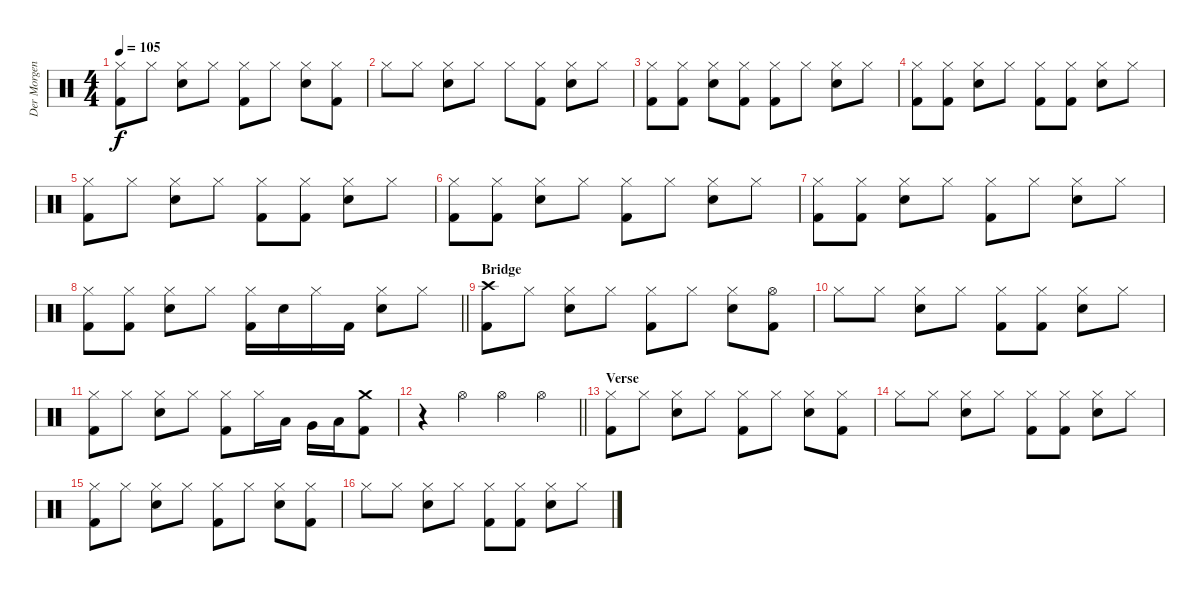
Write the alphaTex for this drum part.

\track ("Der Morgenstern" "Der Morgen") {instrument percussion}
\staff {score}
\articulation defaults
\ts (4 4)
\tempo 105
\clef neutral
\ks c
("Hi-Hat (closed)" "Kick (hit) 2").8{dy f} "Hi-Hat (closed)".8 ("Hi-Hat (closed)" "Electric Snare (hit)").8 "Hi-Hat (closed)".8 ("Hi-Hat (closed)" "Kick (hit) 2").8 "Hi-Hat (closed)".8 ("Hi-Hat (closed)" "Electric Snare (hit)").8 ("Hi-Hat (closed)" "Kick (hit) 2").8 |
"Hi-Hat (closed)".8 "Hi-Hat (closed)".8 ("Hi-Hat (closed)" "Electric Snare (hit)").8 "Hi-Hat (closed)".8 "Hi-Hat (closed)".8 ("Hi-Hat (closed)" "Kick (hit) 2").8 ("Hi-Hat (closed)" "Electric Snare (hit)").8 "Hi-Hat (closed)".8 |
("Hi-Hat (closed)" "Kick (hit) 2").8 ("Hi-Hat (closed)" "Kick (hit) 2").8 ("Hi-Hat (closed)" "Electric Snare (hit)").8 ("Hi-Hat (closed)" "Kick (hit) 2").8 ("Hi-Hat (closed)" "Kick (hit) 2").8 "Hi-Hat (closed)".8 ("Hi-Hat (closed)" "Electric Snare (hit)").8 "Hi-Hat (closed)".8 |
("Hi-Hat (closed)" "Kick (hit) 2").8 ("Hi-Hat (closed)" "Kick (hit) 2").8 ("Hi-Hat (closed)" "Electric Snare (hit)").8 "Hi-Hat (closed)".8 ("Hi-Hat (closed)" "Kick (hit) 2").8 ("Hi-Hat (closed)" "Kick (hit) 2").8 ("Hi-Hat (closed)" "Electric Snare (hit)").8 "Hi-Hat (closed)".8 |
("Hi-Hat (closed)" "Kick (hit) 2").8 "Hi-Hat (closed)".8 ("Hi-Hat (closed)" "Electric Snare (hit)").8 "Hi-Hat (closed)".8 ("Hi-Hat (closed)" "Kick (hit) 2").8 ("Hi-Hat (closed)" "Kick (hit) 2").8 ("Hi-Hat (closed)" "Electric Snare (hit)").8 "Hi-Hat (closed)".8 |
("Hi-Hat (closed)" "Kick (hit) 2").8 ("Hi-Hat (closed)" "Kick (hit) 2").8 ("Hi-Hat (closed)" "Electric Snare (hit)").8 "Hi-Hat (closed)".8 ("Hi-Hat (closed)" "Kick (hit) 2").8 "Hi-Hat (closed)".8 ("Hi-Hat (closed)" "Electric Snare (hit)").8 "Hi-Hat (closed)".8 |
("Hi-Hat (closed)" "Kick (hit) 2").8 ("Hi-Hat (closed)" "Kick (hit) 2").8 ("Hi-Hat (closed)" "Electric Snare (hit)").8 "Hi-Hat (closed)".8 ("Hi-Hat (closed)" "Kick (hit) 2").8 "Hi-Hat (closed)".8 ("Hi-Hat (closed)" "Electric Snare (hit)").8 "Hi-Hat (closed)".8 |
\barLineRight lightlight
("Hi-Hat (closed)" "Kick (hit) 2").8 ("Hi-Hat (closed)" "Kick (hit) 2").8 ("Hi-Hat (closed)" "Electric Snare (hit)").8 "Hi-Hat (closed)".8 ("Hi-Hat (closed)" "Kick (hit) 2").16 "Electric Snare (hit)".16 "Hi-Hat (closed)".16 "Kick (hit) 2".16 ("Hi-Hat (closed)" "Electric Snare (hit)").8 "Hi-Hat (closed)".8 |
\section ("" "Bridge")
("Crash high (hit)" "Kick (hit) 2").8 "Hi-Hat (closed)".8 ("Hi-Hat (closed)" "Electric Snare (hit)").8 "Hi-Hat (closed)".8 ("Hi-Hat (closed)" "Kick (hit) 2").8 "Hi-Hat (closed)".8 ("Hi-Hat (closed)" "Electric Snare (hit)").8 ("Hi-Hat (open)" "Kick (hit) 2").8 |
"Hi-Hat (closed)".8 "Hi-Hat (closed)".8 ("Hi-Hat (closed)" "Electric Snare (hit)").8 "Hi-Hat (closed)".8 ("Hi-Hat (closed)" "Kick (hit) 2").8 ("Hi-Hat (closed)" "Kick (hit) 2").8 ("Hi-Hat (closed)" "Electric Snare (hit)").8 "Hi-Hat (closed)".8 |
("Hi-Hat (closed)" "Kick (hit) 2").8 "Hi-Hat (closed)".8 ("Hi-Hat (closed)" "Electric Snare (hit)").8 "Hi-Hat (closed)".8 ("Hi-Hat (closed)" "Kick (hit) 2").8 "Hi-Hat (closed)".16 "Low Tom (hit)".16 "Very Low Tom (hit)".16 "Low Floor Tom (hit)".16 ("Crash medium (hit)" "Kick (hit) 2").8 |
\barLineRight lightlight
r.4 "Hi-Hat (open)".4 "Hi-Hat (open)".4 "Hi-Hat (open)".4 |
\section ("" "Verse")
("Hi-Hat (closed)" "Kick (hit) 2").8 "Hi-Hat (closed)".8 ("Hi-Hat (closed)" "Electric Snare (hit)").8 "Hi-Hat (closed)".8 ("Hi-Hat (closed)" "Kick (hit) 2").8 "Hi-Hat (closed)".8 ("Hi-Hat (closed)" "Electric Snare (hit)").8 ("Hi-Hat (closed)" "Kick (hit) 2").8 |
"Hi-Hat (closed)".8 "Hi-Hat (closed)".8 ("Hi-Hat (closed)" "Electric Snare (hit)").8 "Hi-Hat (closed)".8 ("Hi-Hat (closed)" "Kick (hit) 2").8 ("Hi-Hat (closed)" "Kick (hit) 2").8 ("Hi-Hat (closed)" "Electric Snare (hit)").8 "Hi-Hat (closed)".8 |
("Hi-Hat (closed)" "Kick (hit) 2").8 "Hi-Hat (closed)".8 ("Hi-Hat (closed)" "Electric Snare (hit)").8 "Hi-Hat (closed)".8 ("Hi-Hat (closed)" "Kick (hit) 2").8 "Hi-Hat (closed)".8 ("Hi-Hat (closed)" "Electric Snare (hit)").8 ("Hi-Hat (closed)" "Kick (hit) 2").8 |
"Hi-Hat (closed)".8 "Hi-Hat (closed)".8 ("Hi-Hat (closed)" "Electric Snare (hit)").8 "Hi-Hat (closed)".8 ("Hi-Hat (closed)" "Kick (hit) 2").8 ("Hi-Hat (closed)" "Kick (hit) 2").8 ("Hi-Hat (closed)" "Electric Snare (hit)").8 "Hi-Hat (closed)".8
